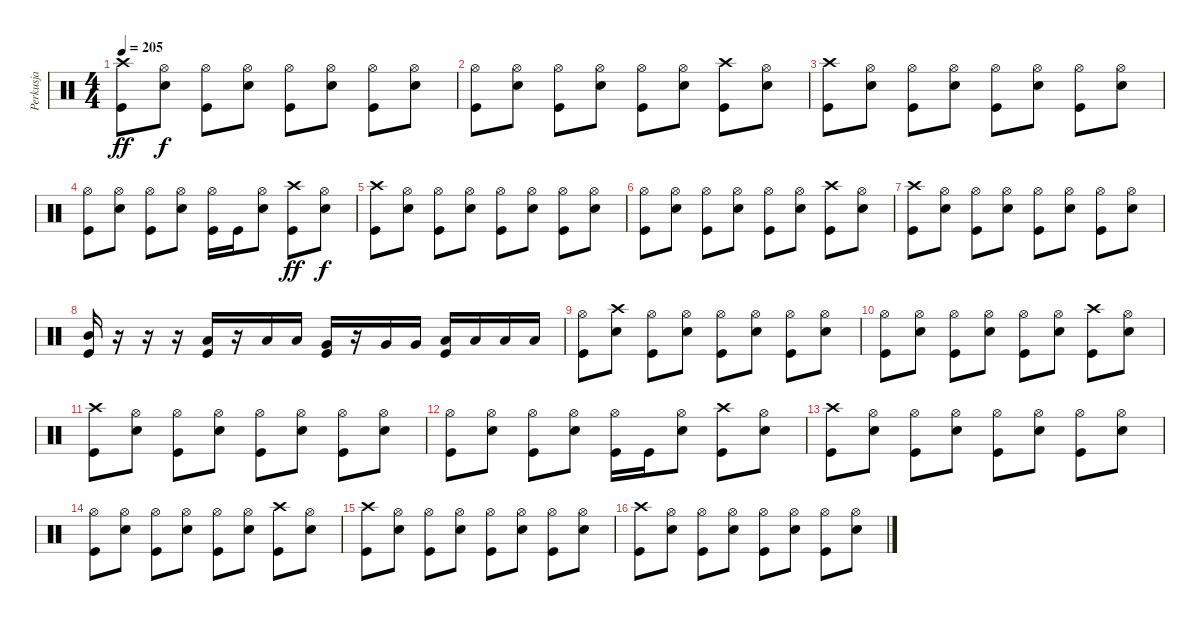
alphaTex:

\track ("Perkusja" "Perkusja") {instrument percussion}
\staff {score}
\articulation defaults
\ts (4 4)
\tempo 205
\clef neutral
\ks c
("Crash high (hit)" "Kick (hit)").8{dy ff} ("Hi-Hat (open)" "Snare (hit) 2").8{dy f} ("Hi-Hat (open)" "Kick (hit)").8 ("Hi-Hat (open)" "Snare (hit) 2").8 ("Hi-Hat (open)" "Kick (hit)").8 ("Hi-Hat (open)" "Snare (hit) 2").8 ("Hi-Hat (open)" "Kick (hit)").8 ("Hi-Hat (open)" "Snare (hit) 2").8 |
("Hi-Hat (open)" "Kick (hit)").8 ("Hi-Hat (open)" "Snare (hit) 2").8 ("Hi-Hat (open)" "Kick (hit)").8 ("Hi-Hat (open)" "Snare (hit) 2").8 ("Hi-Hat (open)" "Kick (hit)").8 ("Hi-Hat (open)" "Snare (hit) 2").8 ("Crash high (hit)" "Kick (hit)").8 ("Hi-Hat (open)" "Snare (hit) 2").8 |
("Crash high (hit)" "Kick (hit)").8 ("Hi-Hat (open)" "Snare (hit) 2").8 ("Hi-Hat (open)" "Kick (hit)").8 ("Hi-Hat (open)" "Snare (hit) 2").8 ("Hi-Hat (open)" "Kick (hit)").8 ("Hi-Hat (open)" "Snare (hit) 2").8 ("Hi-Hat (open)" "Kick (hit)").8 ("Hi-Hat (open)" "Snare (hit) 2").8 |
("Hi-Hat (open)" "Kick (hit)").8 ("Hi-Hat (open)" "Snare (hit) 2").8 ("Hi-Hat (open)" "Kick (hit)").8 ("Hi-Hat (open)" "Snare (hit) 2").8 ("Hi-Hat (open)" "Kick (hit)").16 "Kick (hit)".16 ("Hi-Hat (open)" "Snare (hit) 2").8 ("Crash high (hit)" "Kick (hit)").8{dy ff} ("Hi-Hat (open)" "Snare (hit) 2").8{dy f} |
("Crash high (hit)" "Kick (hit)").8 ("Hi-Hat (open)" "Snare (hit) 2").8 ("Hi-Hat (open)" "Kick (hit)").8 ("Hi-Hat (open)" "Snare (hit) 2").8 ("Hi-Hat (open)" "Kick (hit)").8 ("Hi-Hat (open)" "Snare (hit) 2").8 ("Hi-Hat (open)" "Kick (hit)").8 ("Hi-Hat (open)" "Snare (hit) 2").8 |
("Hi-Hat (open)" "Kick (hit)").8 ("Hi-Hat (open)" "Snare (hit) 2").8 ("Hi-Hat (open)" "Kick (hit)").8 ("Hi-Hat (open)" "Snare (hit) 2").8 ("Hi-Hat (open)" "Kick (hit)").8 ("Hi-Hat (open)" "Snare (hit) 2").8 ("Crash high (hit)" "Kick (hit)").8 ("Hi-Hat (open)" "Snare (hit) 2").8 |
("Crash high (hit)" "Kick (hit)").8 ("Hi-Hat (open)" "Snare (hit) 2").8 ("Hi-Hat (open)" "Kick (hit)").8 ("Hi-Hat (open)" "Snare (hit) 2").8 ("Hi-Hat (open)" "Kick (hit)").8 ("Hi-Hat (open)" "Snare (hit) 2").8 ("Hi-Hat (open)" "Kick (hit)").8 ("Hi-Hat (open)" "Snare (hit) 2").8 |
("Mid Tom (hit)" "Kick (hit)").16 r.16 r.16 r.16 ("Low Tom (hit)" "Kick (hit)").16 r.16 "Low Tom (hit)".16 "Low Tom (hit)".16 ("Very Low Tom (hit)" "Kick (hit)").16 r.16 "Very Low Tom (hit)".16 "Very Low Tom (hit)".16 ("Low Floor Tom (hit)" "Kick (hit)").16 "Low Floor Tom (hit)".16 "Low Floor Tom (hit)".16 "Low Floor Tom (hit)".16 |
("Hi-Hat (open)" "Kick (hit)").8 ("Crash high (hit)" "Snare (hit) 2").8 ("Hi-Hat (open)" "Kick (hit)").8 ("Hi-Hat (open)" "Snare (hit) 2").8 ("Hi-Hat (open)" "Kick (hit)").8 ("Hi-Hat (open)" "Snare (hit) 2").8 ("Hi-Hat (open)" "Kick (hit)").8 ("Hi-Hat (open)" "Snare (hit) 2").8 |
("Hi-Hat (open)" "Kick (hit)").8 ("Hi-Hat (open)" "Snare (hit) 2").8 ("Hi-Hat (open)" "Kick (hit)").8 ("Hi-Hat (open)" "Snare (hit) 2").8 ("Hi-Hat (open)" "Kick (hit)").8 ("Hi-Hat (open)" "Snare (hit) 2").8 ("Crash high (hit)" "Kick (hit)").8 ("Hi-Hat (open)" "Snare (hit) 2").8 |
("Crash high (hit)" "Kick (hit)").8 ("Hi-Hat (open)" "Snare (hit) 2").8 ("Hi-Hat (open)" "Kick (hit)").8 ("Hi-Hat (open)" "Snare (hit) 2").8 ("Hi-Hat (open)" "Kick (hit)").8 ("Hi-Hat (open)" "Snare (hit) 2").8 ("Hi-Hat (open)" "Kick (hit)").8 ("Hi-Hat (open)" "Snare (hit) 2").8 |
("Hi-Hat (open)" "Kick (hit)").8 ("Hi-Hat (open)" "Snare (hit) 2").8 ("Hi-Hat (open)" "Kick (hit)").8 ("Hi-Hat (open)" "Snare (hit) 2").8 ("Hi-Hat (open)" "Kick (hit)").16 "Kick (hit)".16 ("Hi-Hat (open)" "Snare (hit) 2").8 ("Crash high (hit)" "Kick (hit)").8 ("Hi-Hat (open)" "Snare (hit) 2").8 |
("Crash high (hit)" "Kick (hit)").8 ("Hi-Hat (open)" "Snare (hit) 2").8 ("Hi-Hat (open)" "Kick (hit)").8 ("Hi-Hat (open)" "Snare (hit) 2").8 ("Hi-Hat (open)" "Kick (hit)").8 ("Hi-Hat (open)" "Snare (hit) 2").8 ("Hi-Hat (open)" "Kick (hit)").8 ("Hi-Hat (open)" "Snare (hit) 2").8 |
("Hi-Hat (open)" "Kick (hit)").8 ("Hi-Hat (open)" "Snare (hit) 2").8 ("Hi-Hat (open)" "Kick (hit)").8 ("Hi-Hat (open)" "Snare (hit) 2").8 ("Hi-Hat (open)" "Kick (hit)").8 ("Hi-Hat (open)" "Snare (hit) 2").8 ("Crash high (hit)" "Kick (hit)").8 ("Hi-Hat (open)" "Snare (hit) 2").8 |
("Crash high (hit)" "Kick (hit)").8 ("Hi-Hat (open)" "Snare (hit) 2").8 ("Hi-Hat (open)" "Kick (hit)").8 ("Hi-Hat (open)" "Snare (hit) 2").8 ("Hi-Hat (open)" "Kick (hit)").8 ("Hi-Hat (open)" "Snare (hit) 2").8 ("Hi-Hat (open)" "Kick (hit)").8 ("Hi-Hat (open)" "Snare (hit) 2").8 |
("Crash high (hit)" "Kick (hit)").8 ("Hi-Hat (open)" "Snare (hit) 2").8 ("Hi-Hat (open)" "Kick (hit)").8 ("Hi-Hat (open)" "Snare (hit) 2").8 ("Hi-Hat (open)" "Kick (hit)").8 ("Hi-Hat (open)" "Snare (hit) 2").8 ("Hi-Hat (open)" "Kick (hit)").8 ("Hi-Hat (open)" "Snare (hit) 2").8
